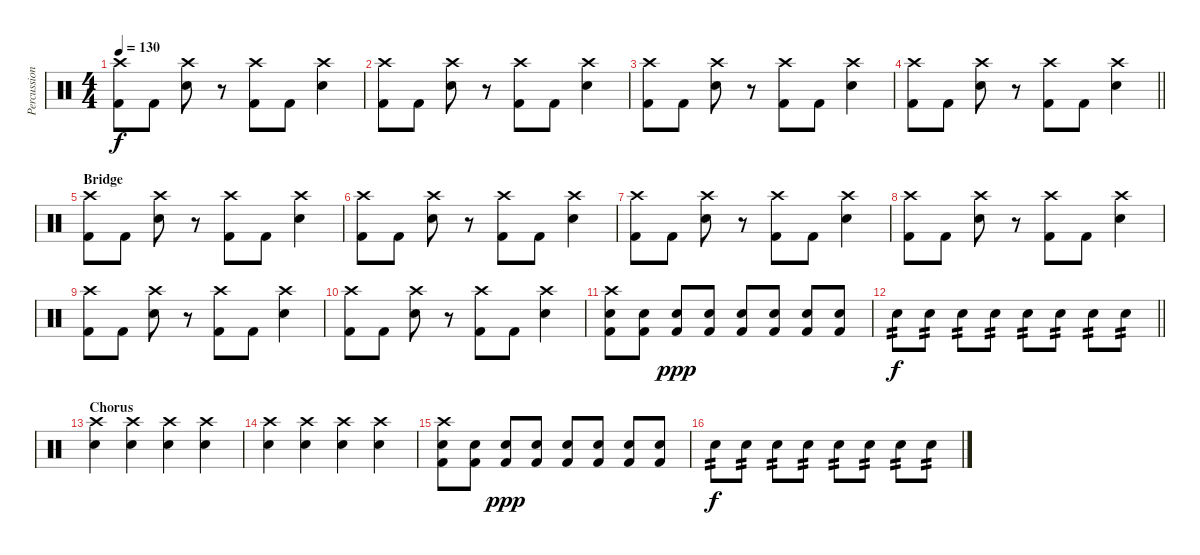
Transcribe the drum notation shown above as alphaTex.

\track ("Percussion" "Percussion") {instrument percussion}
\staff {score}
\articulation defaults
\ts (4 4)
\tempo 130
\clef neutral
\ks c
("Crash high (hit)" "Kick (hit) 2").8{dy f} "Kick (hit) 2".8 ("Crash high (hit)" "Electric Snare (hit)").8 r.8 ("Crash high (hit)" "Kick (hit) 2").8 "Kick (hit) 2".8 ("Crash high (hit)" "Electric Snare (hit)").4 |
("Crash high (hit)" "Kick (hit) 2").8 "Kick (hit) 2".8 ("Crash high (hit)" "Electric Snare (hit)").8 r.8 ("Crash high (hit)" "Kick (hit) 2").8 "Kick (hit) 2".8 ("Crash high (hit)" "Electric Snare (hit)").4 |
("Crash high (hit)" "Kick (hit) 2").8 "Kick (hit) 2".8 ("Crash high (hit)" "Electric Snare (hit)").8 r.8 ("Crash high (hit)" "Kick (hit) 2").8 "Kick (hit) 2".8 ("Crash high (hit)" "Electric Snare (hit)").4 |
\barLineRight lightlight
("Crash high (hit)" "Kick (hit) 2").8 "Kick (hit) 2".8 ("Crash high (hit)" "Electric Snare (hit)").8 r.8 ("Crash high (hit)" "Kick (hit) 2").8 "Kick (hit) 2".8 ("Crash high (hit)" "Electric Snare (hit)").4 |
\section ("" "Bridge")
("Crash high (hit)" "Kick (hit) 2").8 "Kick (hit) 2".8 ("Crash high (hit)" "Electric Snare (hit)").8 r.8 ("Crash high (hit)" "Kick (hit) 2").8 "Kick (hit) 2".8 ("Crash high (hit)" "Electric Snare (hit)").4 |
("Crash high (hit)" "Kick (hit) 2").8 "Kick (hit) 2".8 ("Crash high (hit)" "Electric Snare (hit)").8 r.8 ("Crash high (hit)" "Kick (hit) 2").8 "Kick (hit) 2".8 ("Crash high (hit)" "Electric Snare (hit)").4 |
("Crash high (hit)" "Kick (hit) 2").8 "Kick (hit) 2".8 ("Crash high (hit)" "Electric Snare (hit)").8 r.8 ("Crash high (hit)" "Kick (hit) 2").8 "Kick (hit) 2".8 ("Crash high (hit)" "Electric Snare (hit)").4 |
("Crash high (hit)" "Kick (hit) 2").8 "Kick (hit) 2".8 ("Crash high (hit)" "Electric Snare (hit)").8 r.8 ("Crash high (hit)" "Kick (hit) 2").8 "Kick (hit) 2".8 ("Crash high (hit)" "Electric Snare (hit)").4 |
("Crash high (hit)" "Kick (hit) 2").8 "Kick (hit) 2".8 ("Crash high (hit)" "Electric Snare (hit)").8 r.8 ("Crash high (hit)" "Kick (hit) 2").8 "Kick (hit) 2".8 ("Crash high (hit)" "Electric Snare (hit)").4 |
("Crash high (hit)" "Kick (hit) 2").8 "Kick (hit) 2".8 ("Crash high (hit)" "Electric Snare (hit)").8 r.8 ("Crash high (hit)" "Kick (hit) 2").8 "Kick (hit) 2".8 ("Crash high (hit)" "Electric Snare (hit)").4 |
("Electric Snare (hit)" "Crash high (hit)" "Kick (hit) 2").8 ("Electric Snare (hit)" "Kick (hit) 2").8 ("Electric Snare (hit)" "Kick (hit) 2").8{dy ppp} ("Electric Snare (hit)" "Kick (hit) 2").8 ("Electric Snare (hit)" "Kick (hit) 2").8 ("Electric Snare (hit)" "Kick (hit) 2").8 ("Electric Snare (hit)" "Kick (hit) 2").8 ("Electric Snare (hit)" "Kick (hit) 2").8 |
\barLineRight lightlight "Electric Snare (hit)".8{tp 2 dy f} "Electric Snare (hit)".8{tp 2} "Electric Snare (hit)".8{tp 2} "Electric Snare (hit)".8{tp 2} "Electric Snare (hit)".8{tp 2} "Electric Snare (hit)".8{tp 2} "Electric Snare (hit)".8{tp 2} "Electric Snare (hit)".8{tp 2}
|
\section ("" "Chorus")
("Crash high (hit)" "Electric Snare (hit)").4 ("Crash high (hit)" "Electric Snare (hit)").4 ("Crash high (hit)" "Electric Snare (hit)").4 ("Crash high (hit)" "Electric Snare (hit)").4 |
("Crash high (hit)" "Electric Snare (hit)").4 ("Crash high (hit)" "Electric Snare (hit)").4 ("Crash high (hit)" "Electric Snare (hit)").4 ("Crash high (hit)" "Electric Snare (hit)").4 |
("Electric Snare (hit)" "Crash high (hit)" "Kick (hit) 2").8 ("Electric Snare (hit)" "Kick (hit) 2").8 ("Electric Snare (hit)" "Kick (hit) 2").8{dy ppp} ("Electric Snare (hit)" "Kick (hit) 2").8 ("Electric Snare (hit)" "Kick (hit) 2").8 ("Electric Snare (hit)" "Kick (hit) 2").8 ("Electric Snare (hit)" "Kick (hit) 2").8 ("Electric Snare (hit)" "Kick (hit) 2").8 |
"Electric Snare (hit)".8{tp 2 dy f} "Electric Snare (hit)".8{tp 2} "Electric Snare (hit)".8{tp 2} "Electric Snare (hit)".8{tp 2} "Electric Snare (hit)".8{tp 2} "Electric Snare (hit)".8{tp 2} "Electric Snare (hit)".8{tp 2} "Electric Snare (hit)".8{tp 2}
